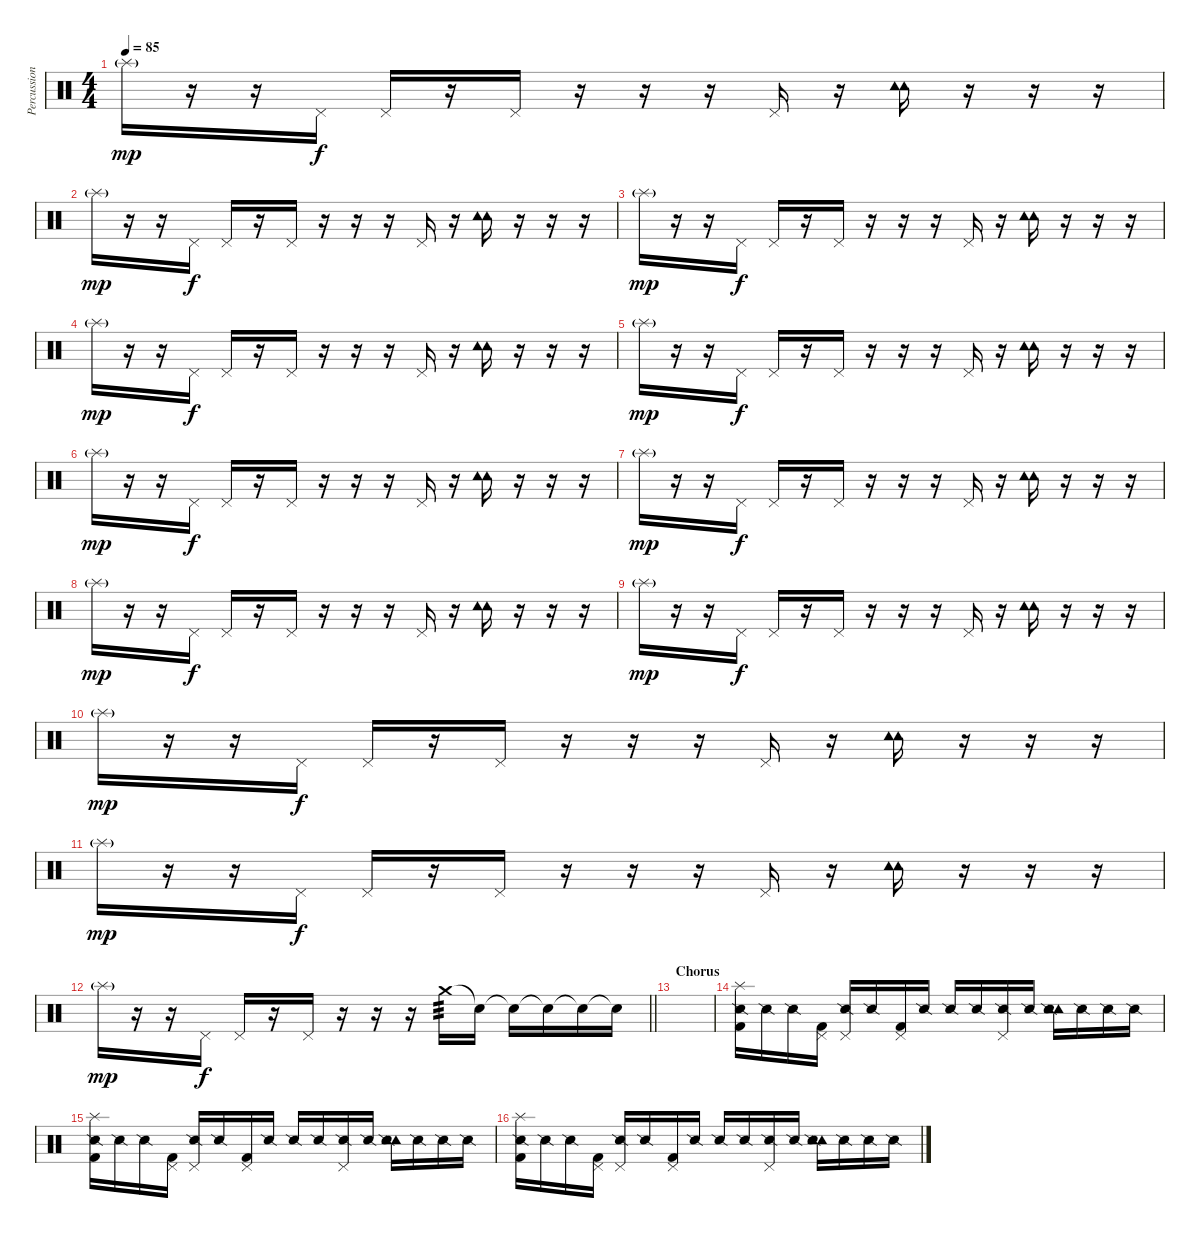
\track ("Percussion" "Percussion") {instrument percussion}
\staff {score}
\articulation defaults
\ts (4 4)
\tempo 85
\clef neutral
\ks c "Splash (hit)"{g}.16{dy mp}
r.16 r.16 "Pedal Hi-Hat (hit)".16{dy f} "Pedal Hi-Hat (hit)".16 r.16 "Pedal Hi-Hat (hit)".16 r.16 r.16 r.16 "Pedal Hi-Hat (hit)".16 r.16 ("Tambourine (hit)" "Tambourine (hit)").16 r.16 r.16 r.16 |
"Splash (hit)"{g}.16{dy mp} r.16 r.16 "Pedal Hi-Hat (hit)".16{dy f} "Pedal Hi-Hat (hit)".16 r.16 "Pedal Hi-Hat (hit)".16 r.16 r.16 r.16 "Pedal Hi-Hat (hit)".16 r.16 ("Tambourine (hit)" "Tambourine (hit)").16 r.16 r.16 r.16 |
"Splash (hit)"{g}.16{dy mp} r.16 r.16 "Pedal Hi-Hat (hit)".16{dy f} "Pedal Hi-Hat (hit)".16 r.16 "Pedal Hi-Hat (hit)".16 r.16 r.16 r.16 "Pedal Hi-Hat (hit)".16 r.16 ("Tambourine (hit)" "Tambourine (hit)").16 r.16 r.16 r.16 |
"Splash (hit)"{g}.16{dy mp} r.16 r.16 "Pedal Hi-Hat (hit)".16{dy f} "Pedal Hi-Hat (hit)".16 r.16 "Pedal Hi-Hat (hit)".16 r.16 r.16 r.16 "Pedal Hi-Hat (hit)".16 r.16 ("Tambourine (hit)" "Tambourine (hit)").16 r.16 r.16 r.16 |
"Splash (hit)"{g}.16{dy mp} r.16 r.16 "Pedal Hi-Hat (hit)".16{dy f} "Pedal Hi-Hat (hit)".16 r.16 "Pedal Hi-Hat (hit)".16 r.16 r.16 r.16 "Pedal Hi-Hat (hit)".16 r.16 ("Tambourine (hit)" "Tambourine (hit)").16 r.16 r.16 r.16 |
"Splash (hit)"{g}.16{dy mp} r.16 r.16 "Pedal Hi-Hat (hit)".16{dy f} "Pedal Hi-Hat (hit)".16 r.16 "Pedal Hi-Hat (hit)".16 r.16 r.16 r.16 "Pedal Hi-Hat (hit)".16 r.16 ("Tambourine (hit)" "Tambourine (hit)").16 r.16 r.16 r.16 |
"Splash (hit)"{g}.16{dy mp} r.16 r.16 "Pedal Hi-Hat (hit)".16{dy f} "Pedal Hi-Hat (hit)".16 r.16 "Pedal Hi-Hat (hit)".16 r.16 r.16 r.16 "Pedal Hi-Hat (hit)".16 r.16 ("Tambourine (hit)" "Tambourine (hit)").16 r.16 r.16 r.16 |
"Splash (hit)"{g}.16{dy mp} r.16 r.16 "Pedal Hi-Hat (hit)".16{dy f} "Pedal Hi-Hat (hit)".16 r.16 "Pedal Hi-Hat (hit)".16 r.16 r.16 r.16 "Pedal Hi-Hat (hit)".16 r.16 ("Tambourine (hit)" "Tambourine (hit)").16 r.16 r.16 r.16 |
"Splash (hit)"{g}.16{dy mp} r.16 r.16 "Pedal Hi-Hat (hit)".16{dy f} "Pedal Hi-Hat (hit)".16 r.16 "Pedal Hi-Hat (hit)".16 r.16 r.16 r.16 "Pedal Hi-Hat (hit)".16 r.16 ("Tambourine (hit)" "Tambourine (hit)").16 r.16 r.16 r.16 |
"Splash (hit)"{g}.16{dy mp} r.16 r.16 "Pedal Hi-Hat (hit)".16{dy f} "Pedal Hi-Hat (hit)".16 r.16 "Pedal Hi-Hat (hit)".16 r.16 r.16 r.16 "Pedal Hi-Hat (hit)".16 r.16 ("Tambourine (hit)" "Tambourine (hit)").16 r.16 r.16 r.16 |
"Splash (hit)"{g}.16{dy mp} r.16 r.16 "Pedal Hi-Hat (hit)".16{dy f} "Pedal Hi-Hat (hit)".16 r.16 "Pedal Hi-Hat (hit)".16 r.16 r.16 r.16 "Pedal Hi-Hat (hit)".16 r.16 ("Tambourine (hit)" "Tambourine (hit)").16 r.16 r.16 r.16 |
\barLineRight lightlight "Splash (hit)"{g}.16{dy mp}
r.16 r.16 "Pedal Hi-Hat (hit)".16{dy f} "Pedal Hi-Hat (hit)".16 r.16 "Pedal Hi-Hat (hit)".16 r.16 r.16{volume 7} r.16 "Crash medium (hit)".16{tp 3 volume 16} "Snare (hit)"{t}.16 "Snare (hit)"{t}.16 "Snare (hit)"{t}.16 "Snare (hit)"{t}.16 "Snare (hit)"{t}.16 |
\section ("" "Chorus")
|
("Splash (hit)" "Kick (hit) 2" "Snare (side stick) 2").16{volume 10} "Snare (side stick) 2".16 "Snare (side stick) 2".16 ("Pedal Hi-Hat (hit)" "Kick (hit) 2").16 ("Pedal Hi-Hat (hit)" "Snare (side stick) 2").16 "Snare (side stick) 2".16 ("Pedal Hi-Hat (hit)" "Kick (hit) 2").16 "Snare (side stick) 2".16 "Snare (side stick) 2".16 "Snare (side stick) 2".16 ("Pedal Hi-Hat (hit)" "Snare (side stick) 2").16 "Snare (side stick) 2".16 ("Tambourine (hit)" "Tambourine (hit)" "Snare (side stick) 2").16 "Snare (side stick) 2".16 "Snare (side stick) 2".16 "Snare (side stick) 2".16 |
("Splash (hit)" "Kick (hit) 2" "Snare (side stick) 2").16 "Snare (side stick) 2".16 "Snare (side stick) 2".16 ("Pedal Hi-Hat (hit)" "Kick (hit) 2").16 ("Pedal Hi-Hat (hit)" "Snare (side stick) 2").16 "Snare (side stick) 2".16 ("Pedal Hi-Hat (hit)" "Kick (hit) 2").16 "Snare (side stick) 2".16 "Snare (side stick) 2".16 "Snare (side stick) 2".16 ("Pedal Hi-Hat (hit)" "Snare (side stick) 2").16 "Snare (side stick) 2".16 ("Tambourine (hit)" "Tambourine (hit)" "Snare (side stick) 2").16 "Snare (side stick) 2".16 "Snare (side stick) 2".16 "Snare (side stick) 2".16 |
("Splash (hit)" "Kick (hit) 2" "Snare (side stick) 2").16 "Snare (side stick) 2".16 "Snare (side stick) 2".16 ("Pedal Hi-Hat (hit)" "Kick (hit) 2").16 ("Pedal Hi-Hat (hit)" "Snare (side stick) 2").16 "Snare (side stick) 2".16 ("Pedal Hi-Hat (hit)" "Kick (hit) 2").16 "Snare (side stick) 2".16 "Snare (side stick) 2".16 "Snare (side stick) 2".16 ("Pedal Hi-Hat (hit)" "Snare (side stick) 2").16 "Snare (side stick) 2".16 ("Tambourine (hit)" "Tambourine (hit)" "Snare (side stick) 2").16 "Snare (side stick) 2".16 "Snare (side stick) 2".16 "Snare (side stick) 2".16
